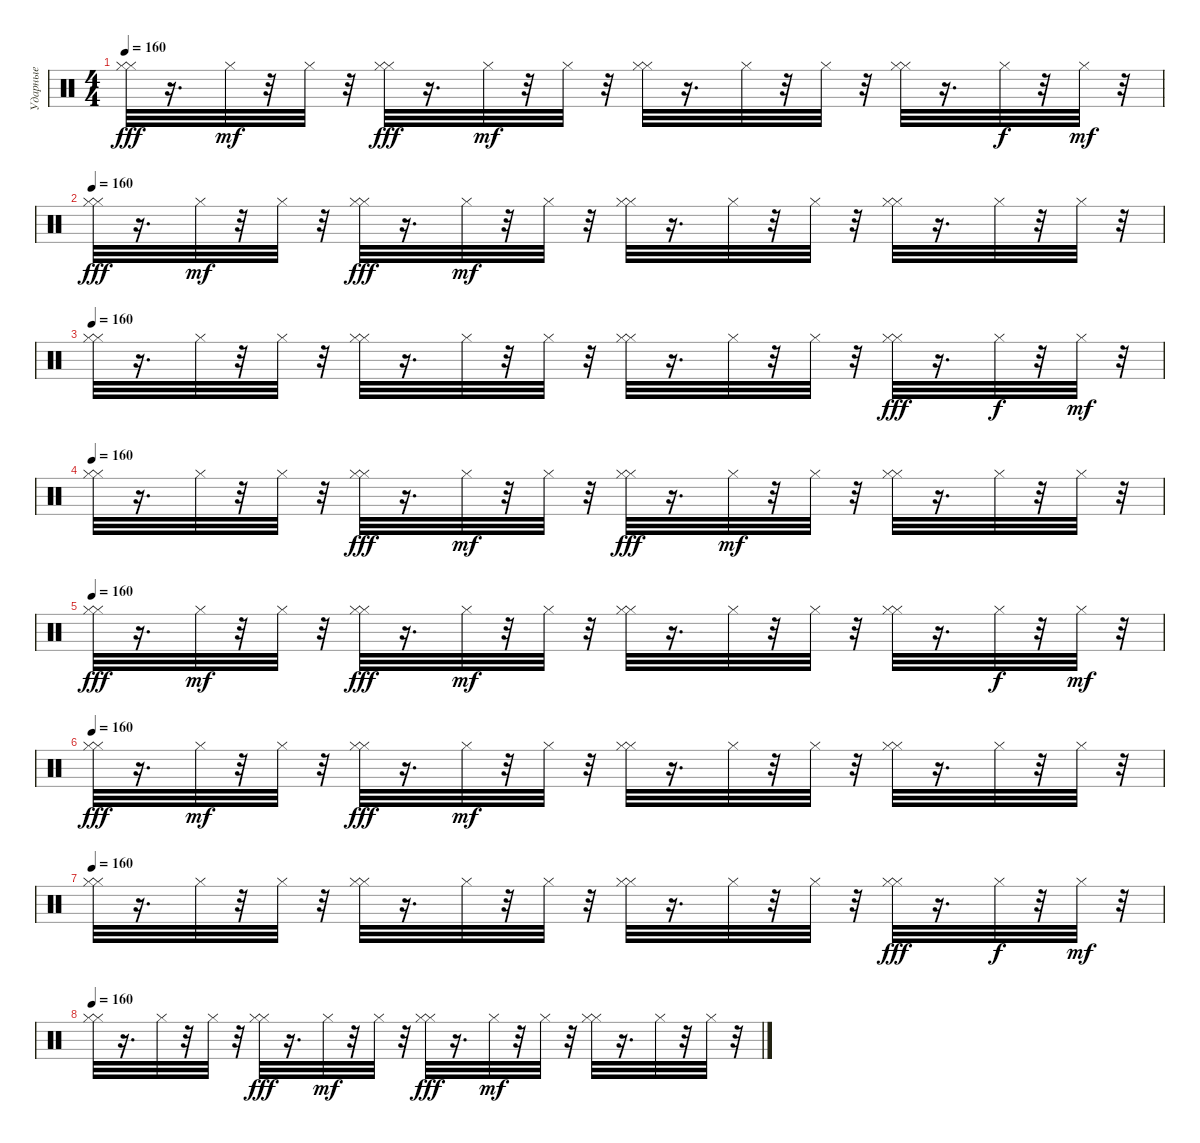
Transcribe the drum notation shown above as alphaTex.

\track ("Ударные" "Ударные") {instrument percussion}
\staff {score}
\articulation defaults
\ts (4 4)
\tempo 160
\clef neutral
\ks c
("Hi-Hat (closed)" "Hi-Hat (closed)").32{dy fff} r.16{d} "Hi-Hat (closed)".32{dy mf} r.32 "Hi-Hat (closed)".32 r.32 ("Hi-Hat (closed)" "Hi-Hat (closed)").32{dy fff} r.16{d} "Hi-Hat (closed)".32{dy mf} r.32 "Hi-Hat (closed)".32 r.32 ("Hi-Hat (closed)" "Hi-Hat (closed)").32 r.16{d} "Hi-Hat (closed)".32 r.32 "Hi-Hat (closed)".32 r.32 ("Hi-Hat (closed)" "Hi-Hat (closed)").32 r.16{d} "Hi-Hat (closed)".32{dy f} r.32 "Hi-Hat (closed)".32{dy mf} r.32 |
\tempo 160
("Hi-Hat (closed)" "Hi-Hat (closed)").32{dy fff} r.16{d} "Hi-Hat (closed)".32{dy mf} r.32 "Hi-Hat (closed)".32 r.32 ("Hi-Hat (closed)" "Hi-Hat (closed)").32{dy fff} r.16{d} "Hi-Hat (closed)".32{dy mf} r.32 "Hi-Hat (closed)".32 r.32 ("Hi-Hat (closed)" "Hi-Hat (closed)").32 r.16{d} "Hi-Hat (closed)".32 r.32 "Hi-Hat (closed)".32 r.32 ("Hi-Hat (closed)" "Hi-Hat (closed)").32 r.16{d} "Hi-Hat (closed)".32 r.32 "Hi-Hat (closed)".32 r.32 |
\tempo 160
("Hi-Hat (closed)" "Hi-Hat (closed)").32 r.16{d} "Hi-Hat (closed)".32 r.32 "Hi-Hat (closed)".32 r.32 ("Hi-Hat (closed)" "Hi-Hat (closed)").32 r.16{d} "Hi-Hat (closed)".32 r.32 "Hi-Hat (closed)".32 r.32 ("Hi-Hat (closed)" "Hi-Hat (closed)").32 r.16{d} "Hi-Hat (closed)".32 r.32 "Hi-Hat (closed)".32 r.32 ("Hi-Hat (closed)" "Hi-Hat (closed)").32{dy fff} r.16{d} "Hi-Hat (closed)".32{dy f} r.32 "Hi-Hat (closed)".32{dy mf} r.32 |
\tempo 160
("Hi-Hat (closed)" "Hi-Hat (closed)").32 r.16{d} "Hi-Hat (closed)".32 r.32 "Hi-Hat (closed)".32 r.32 ("Hi-Hat (closed)" "Hi-Hat (closed)").32{dy fff} r.16{d} "Hi-Hat (closed)".32{dy mf} r.32 "Hi-Hat (closed)".32 r.32 ("Hi-Hat (closed)" "Hi-Hat (closed)").32{dy fff} r.16{d} "Hi-Hat (closed)".32{dy mf} r.32 "Hi-Hat (closed)".32 r.32 ("Hi-Hat (closed)" "Hi-Hat (closed)").32 r.16{d} "Hi-Hat (closed)".32 r.32 "Hi-Hat (closed)".32 r.32 |
\tempo 160
("Hi-Hat (closed)" "Hi-Hat (closed)").32{dy fff} r.16{d} "Hi-Hat (closed)".32{dy mf} r.32 "Hi-Hat (closed)".32 r.32 ("Hi-Hat (closed)" "Hi-Hat (closed)").32{dy fff} r.16{d} "Hi-Hat (closed)".32{dy mf} r.32 "Hi-Hat (closed)".32 r.32 ("Hi-Hat (closed)" "Hi-Hat (closed)").32 r.16{d} "Hi-Hat (closed)".32 r.32 "Hi-Hat (closed)".32 r.32 ("Hi-Hat (closed)" "Hi-Hat (closed)").32 r.16{d} "Hi-Hat (closed)".32{dy f} r.32 "Hi-Hat (closed)".32{dy mf} r.32 |
\tempo 160
("Hi-Hat (closed)" "Hi-Hat (closed)").32{dy fff} r.16{d} "Hi-Hat (closed)".32{dy mf} r.32 "Hi-Hat (closed)".32 r.32 ("Hi-Hat (closed)" "Hi-Hat (closed)").32{dy fff} r.16{d} "Hi-Hat (closed)".32{dy mf} r.32 "Hi-Hat (closed)".32 r.32 ("Hi-Hat (closed)" "Hi-Hat (closed)").32 r.16{d} "Hi-Hat (closed)".32 r.32 "Hi-Hat (closed)".32 r.32 ("Hi-Hat (closed)" "Hi-Hat (closed)").32 r.16{d} "Hi-Hat (closed)".32 r.32 "Hi-Hat (closed)".32 r.32 |
\tempo 160
("Hi-Hat (closed)" "Hi-Hat (closed)").32 r.16{d} "Hi-Hat (closed)".32 r.32 "Hi-Hat (closed)".32 r.32 ("Hi-Hat (closed)" "Hi-Hat (closed)").32 r.16{d} "Hi-Hat (closed)".32 r.32 "Hi-Hat (closed)".32 r.32 ("Hi-Hat (closed)" "Hi-Hat (closed)").32 r.16{d} "Hi-Hat (closed)".32 r.32 "Hi-Hat (closed)".32 r.32 ("Hi-Hat (closed)" "Hi-Hat (closed)").32{dy fff} r.16{d} "Hi-Hat (closed)".32{dy f} r.32 "Hi-Hat (closed)".32{dy mf} r.32 |
\tempo 160
("Hi-Hat (closed)" "Hi-Hat (closed)").32 r.16{d} "Hi-Hat (closed)".32 r.32 "Hi-Hat (closed)".32 r.32 ("Hi-Hat (closed)" "Hi-Hat (closed)").32{dy fff} r.16{d} "Hi-Hat (closed)".32{dy mf} r.32 "Hi-Hat (closed)".32 r.32 ("Hi-Hat (closed)" "Hi-Hat (closed)").32{dy fff} r.16{d} "Hi-Hat (closed)".32{dy mf} r.32 "Hi-Hat (closed)".32 r.32 ("Hi-Hat (closed)" "Hi-Hat (closed)").32 r.16{d} "Hi-Hat (closed)".32 r.32 "Hi-Hat (closed)".32 r.32
